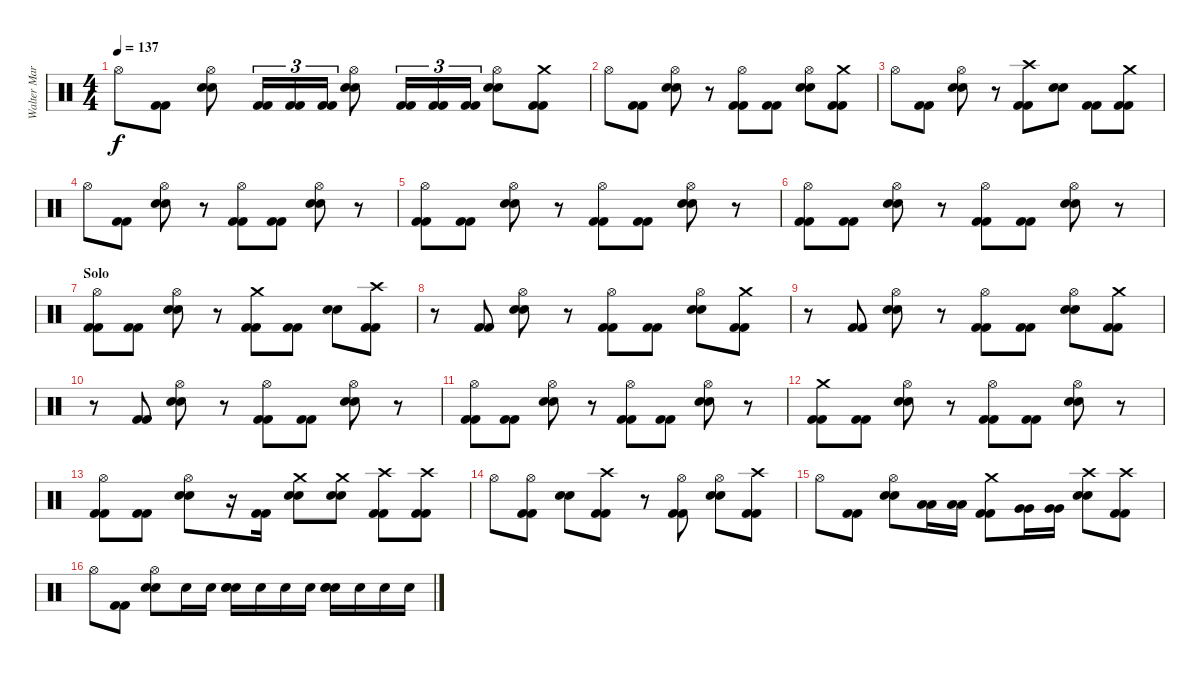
\track ("Walter Martinez (bateria)" "Walter Mar") {instrument percussion}
\staff {score}
\articulation defaults
\ts (4 4)
\tempo 137
\clef neutral
\ks c "Hi-Hat (open)".8{dy f}
("Kick (hit) 2" "Kick (hit) 2").8 ("Hi-Hat (open)" "Snare (hit) 2" "Snare (hit) 2").8 ("Kick (hit) 2" "Kick (hit) 2").16{tu (3 2)} ("Kick (hit) 2" "Kick (hit) 2").16{tu (3 2)} ("Kick (hit) 2" "Kick (hit) 2").16{tu (3 2)} ("Hi-Hat (open)" "Snare (hit) 2" "Snare (hit) 2").8 ("Kick (hit) 2" "Kick (hit) 2").16{tu (3 2)} ("Kick (hit) 2" "Kick (hit) 2").16{tu (3 2)} ("Kick (hit) 2" "Kick (hit) 2").16{tu (3 2)} ("Hi-Hat (open)" "Snare (hit) 2" "Snare (hit) 2").8 ("Crash medium (hit)" "Kick (hit) 2" "Kick (hit) 2").8 |
"Hi-Hat (open)".8 ("Kick (hit) 2" "Kick (hit) 2").8 ("Hi-Hat (open)" "Snare (hit) 2" "Snare (hit) 2").8 r.8 ("Hi-Hat (open)" "Kick (hit) 2" "Kick (hit) 2").8 ("Kick (hit) 2" "Kick (hit) 2").8 ("Hi-Hat (open)" "Snare (hit) 2" "Snare (hit) 2").8 ("Crash medium (hit)" "Kick (hit) 2" "Kick (hit) 2").8 |
"Hi-Hat (open)".8 ("Kick (hit) 2" "Kick (hit) 2").8 ("Hi-Hat (open)" "Snare (hit) 2" "Snare (hit) 2").8 r.8 ("Crash high (hit)" "Kick (hit) 2" "Kick (hit) 2").8 ("Snare (hit) 2" "Snare (hit) 2").8 ("Kick (hit) 2" "Kick (hit) 2").8 ("Crash medium (hit)" "Kick (hit) 2" "Kick (hit) 2").8 |
"Hi-Hat (open)".8 ("Kick (hit) 2" "Kick (hit) 2").8 ("Hi-Hat (open)" "Snare (hit) 2" "Snare (hit) 2").8 r.8 ("Hi-Hat (open)" "Kick (hit) 2" "Kick (hit) 2").8 ("Kick (hit) 2" "Kick (hit) 2").8 ("Hi-Hat (open)" "Snare (hit) 2" "Snare (hit) 2").8 r.8 |
("Hi-Hat (open)" "Kick (hit) 2" "Kick (hit) 2").8 ("Kick (hit) 2" "Kick (hit) 2").8 ("Hi-Hat (open)" "Snare (hit) 2" "Snare (hit) 2").8 r.8 ("Hi-Hat (open)" "Kick (hit) 2" "Kick (hit) 2").8 ("Kick (hit) 2" "Kick (hit) 2").8 ("Hi-Hat (open)" "Snare (hit) 2" "Snare (hit) 2").8 r.8 |
("Hi-Hat (open)" "Kick (hit) 2" "Kick (hit) 2").8 ("Kick (hit) 2" "Kick (hit) 2").8 ("Hi-Hat (open)" "Snare (hit) 2" "Snare (hit) 2").8 r.8 ("Hi-Hat (open)" "Kick (hit) 2" "Kick (hit) 2").8 ("Kick (hit) 2" "Kick (hit) 2").8 ("Hi-Hat (open)" "Snare (hit) 2" "Snare (hit) 2").8 r.8 |
\section ("" "Solo")
("Hi-Hat (open)" "Kick (hit) 2" "Kick (hit) 2").8 ("Kick (hit) 2" "Kick (hit) 2").8 ("Hi-Hat (open)" "Snare (hit) 2" "Snare (hit) 2").8 r.8 ("Crash medium (hit)" "Kick (hit) 2" "Kick (hit) 2").8 ("Kick (hit) 2" "Kick (hit) 2").8 ("Snare (hit) 2" "Snare (hit) 2").8 ("Crash high (hit)" "Kick (hit) 2" "Kick (hit) 2").8 |
r.8 ("Kick (hit) 2" "Kick (hit) 2").8 ("Hi-Hat (open)" "Snare (hit) 2" "Snare (hit) 2").8 r.8 ("Hi-Hat (open)" "Kick (hit) 2" "Kick (hit) 2").8 ("Kick (hit) 2" "Kick (hit) 2").8 ("Hi-Hat (open)" "Snare (hit) 2" "Snare (hit) 2").8 ("Crash medium (hit)" "Kick (hit) 2" "Kick (hit) 2").8 |
r.8 ("Kick (hit) 2" "Kick (hit) 2").8 ("Hi-Hat (open)" "Snare (hit) 2" "Snare (hit) 2").8 r.8 ("Hi-Hat (open)" "Kick (hit) 2" "Kick (hit) 2").8 ("Kick (hit) 2" "Kick (hit) 2").8 ("Hi-Hat (open)" "Snare (hit) 2" "Snare (hit) 2").8 ("Crash medium (hit)" "Kick (hit) 2" "Kick (hit) 2").8 |
r.8 ("Kick (hit) 2" "Kick (hit) 2").8 ("Hi-Hat (open)" "Snare (hit) 2" "Snare (hit) 2").8 r.8 ("Hi-Hat (open)" "Kick (hit) 2" "Kick (hit) 2").8 ("Kick (hit) 2" "Kick (hit) 2").8 ("Hi-Hat (open)" "Snare (hit) 2" "Snare (hit) 2").8 r.8 |
("Hi-Hat (open)" "Kick (hit) 2" "Kick (hit) 2").8 ("Kick (hit) 2" "Kick (hit) 2").8 ("Hi-Hat (open)" "Snare (hit) 2" "Snare (hit) 2").8 r.8 ("Hi-Hat (open)" "Kick (hit) 2" "Kick (hit) 2").8 ("Kick (hit) 2" "Kick (hit) 2").8 ("Hi-Hat (open)" "Snare (hit) 2" "Snare (hit) 2").8 r.8 |
("Crash medium (hit)" "Kick (hit) 2" "Kick (hit) 2").8 ("Kick (hit) 2" "Kick (hit) 2").8 ("Hi-Hat (open)" "Snare (hit) 2" "Snare (hit) 2").8 r.8 ("Hi-Hat (open)" "Kick (hit) 2" "Kick (hit) 2").8 ("Kick (hit) 2" "Kick (hit) 2").8 ("Hi-Hat (open)" "Snare (hit) 2" "Snare (hit) 2").8 r.8 |
("Hi-Hat (open)" "Kick (hit) 2" "Kick (hit) 2").8 ("Kick (hit) 2" "Kick (hit) 2").8 ("Hi-Hat (open)" "Snare (hit) 2" "Snare (hit) 2").8 r.16 ("Kick (hit) 2" "Kick (hit) 2").16 ("Crash medium (hit)" "Snare (hit) 2" "Snare (hit) 2").8 ("Crash medium (hit)" "Snare (hit) 2" "Snare (hit) 2").8 ("Crash high (hit)" "Kick (hit) 2" "Kick (hit) 2").8 ("Crash high (hit)" "Kick (hit) 2" "Kick (hit) 2").8 |
"Hi-Hat (open)".8 ("Hi-Hat (open)" "Kick (hit) 2" "Kick (hit) 2").8 ("Snare (hit) 2" "Snare (hit) 2").8 ("Crash high (hit)" "Kick (hit) 2" "Kick (hit) 2").8 r.8 ("Hi-Hat (open)" "Kick (hit) 2" "Kick (hit) 2").8 ("Hi-Hat (open)" "Snare (hit) 2" "Snare (hit) 2").8 ("Crash high (hit)" "Kick (hit) 2" "Kick (hit) 2").8 |
"Hi-Hat (open)".8 ("Kick (hit) 2" "Kick (hit) 2").8 ("Hi-Hat (open)" "Snare (hit) 2" "Snare (hit) 2").8 ("Low Tom (hit)" "Low Tom (hit)").16 ("Low Tom (hit)" "Low Tom (hit)").16 ("Crash medium (hit)" "Kick (hit) 2" "Kick (hit) 2").8 ("Very Low Tom (hit)" "Very Low Tom (hit)").16 ("Very Low Tom (hit)" "Very Low Tom (hit)").16 ("Crash high (hit)" "Snare (hit) 2" "Snare (hit) 2").8 ("Crash high (hit)" "Kick (hit) 2" "Kick (hit) 2").8 |
"Hi-Hat (open)".8 ("Kick (hit) 2" "Kick (hit) 2").8 ("Hi-Hat (open)" "Snare (hit) 2" "Snare (hit) 2").8 "Snare (hit) 2".16 "Snare (hit) 2".16 ("Snare (hit) 2" "Snare (hit) 2" "Snare (hit) 2").16 "Snare (hit) 2".16 "Snare (hit) 2".16 "Snare (hit) 2".16 ("Snare (hit) 2" "Snare (hit) 2" "Snare (hit) 2").16 "Snare (hit) 2".16 "Snare (hit) 2".16 "Snare (hit) 2".16
